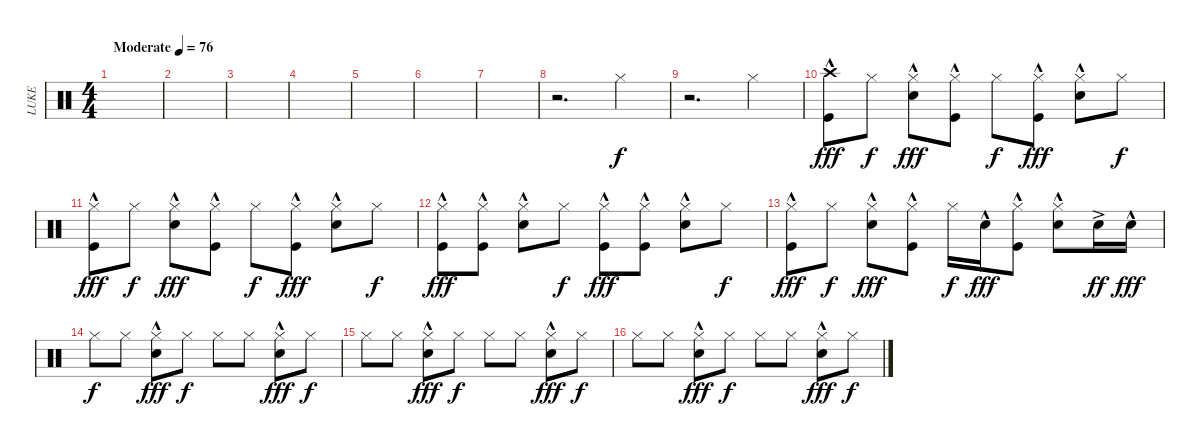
\track ("LUKE" "LUKE") {instrument percussion}
\staff {score}
\articulation defaults
\ts (4 4)
\tempo (76 "Moderate")
\clef neutral
\ks c
|
|
|
|
|
|
|
r.2{d} "Hi-Hat (closed)".4 |
r.2{d} "Hi-Hat (closed)".4 |
("Crash high (hit)"{hac} "Kick (hit)"{hac}).8{dy fff} "Hi-Hat (closed)".8{dy f} ("Hi-Hat (closed)" "Electric Snare (hit)"{hac}).8{dy fff} ("Hi-Hat (closed)" "Kick (hit)"{hac}).8 "Hi-Hat (closed)".8{dy f} ("Hi-Hat (closed)" "Kick (hit)"{hac}).8{dy fff} ("Hi-Hat (closed)" "Electric Snare (hit)"{hac}).8 "Hi-Hat (closed)".8{dy f} |
("Hi-Hat (closed)" "Kick (hit)"{hac}).8{dy fff} "Hi-Hat (closed)".8{dy f} ("Hi-Hat (closed)" "Electric Snare (hit)"{hac}).8{dy fff} ("Hi-Hat (closed)" "Kick (hit)"{hac}).8 "Hi-Hat (closed)".8{dy f} ("Hi-Hat (closed)" "Kick (hit)"{hac}).8{dy fff} ("Hi-Hat (closed)" "Electric Snare (hit)"{hac}).8 "Hi-Hat (closed)".8{dy f} |
("Hi-Hat (closed)" "Kick (hit)"{hac}).8{dy fff} ("Hi-Hat (closed)" "Kick (hit)"{hac}).8 ("Hi-Hat (closed)" "Electric Snare (hit)"{hac}).8 "Hi-Hat (closed)".8{dy f} ("Hi-Hat (closed)" "Kick (hit)"{hac}).8{dy fff} ("Hi-Hat (closed)" "Kick (hit)"{hac}).8 ("Hi-Hat (closed)" "Electric Snare (hit)"{hac}).8 "Hi-Hat (closed)".8{dy f} |
("Hi-Hat (closed)" "Kick (hit)"{hac}).8{dy fff} "Hi-Hat (closed)".8{dy f} ("Hi-Hat (closed)" "Electric Snare (hit)"{hac}).8{dy fff} ("Hi-Hat (closed)" "Kick (hit)"{hac}).8 "Hi-Hat (closed)".16{dy f} "Electric Snare (hit)"{hac}.16{dy fff} ("Hi-Hat (closed)" "Kick (hit)"{hac}).8 ("Hi-Hat (closed)" "Electric Snare (hit)"{hac}).8 "Electric Snare (hit)"{ac}.16{dy ff} "Electric Snare (hit)"{hac}.16{dy fff} |
"Hi-Hat (closed)".8{dy f} "Hi-Hat (closed)".8 ("Hi-Hat (closed)" "Electric Snare (hit)"{hac}).8{dy fff} "Hi-Hat (closed)".8{dy f} "Hi-Hat (closed)".8 "Hi-Hat (closed)".8 ("Hi-Hat (closed)" "Electric Snare (hit)"{hac}).8{dy fff} "Hi-Hat (closed)".8{dy f} |
"Hi-Hat (closed)".8 "Hi-Hat (closed)".8 ("Hi-Hat (closed)" "Electric Snare (hit)"{hac}).8{dy fff} "Hi-Hat (closed)".8{dy f} "Hi-Hat (closed)".8 "Hi-Hat (closed)".8 ("Hi-Hat (closed)" "Electric Snare (hit)"{hac}).8{dy fff} "Hi-Hat (closed)".8{dy f} |
"Hi-Hat (closed)".8 "Hi-Hat (closed)".8 ("Hi-Hat (closed)" "Electric Snare (hit)"{hac}).8{dy fff} "Hi-Hat (closed)".8{dy f} "Hi-Hat (closed)".8 "Hi-Hat (closed)".8 ("Hi-Hat (closed)" "Electric Snare (hit)"{hac}).8{dy fff} "Hi-Hat (closed)".8{dy f}
